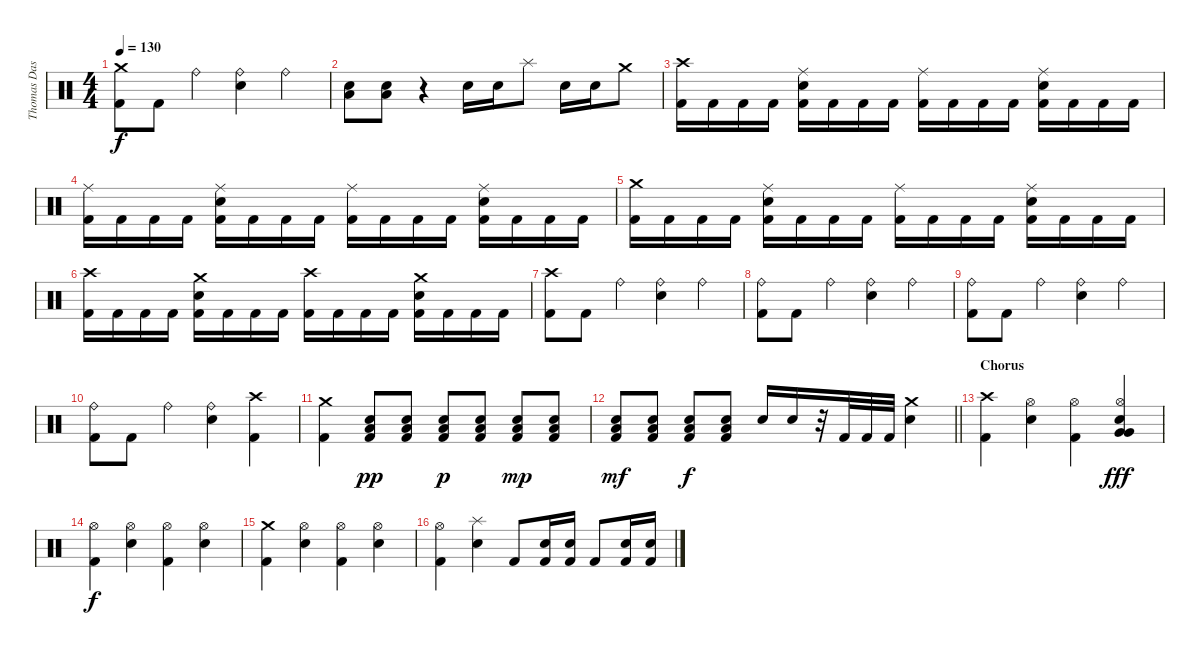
\track ("Thomas Das Neves (Drums)" "Thomas Das") {instrument percussion}
\staff {score}
\articulation defaults
\ts (4 4)
\tempo 130
\clef neutral
\ks c
("Crash medium (hit)" "Kick (hit) 2").8{dy f} "Kick (hit) 2".8 "Ride (bell)".4 ("Ride (bell)" "Snare (hit) 2").4 "Ride (bell)".4 |
("Low Floor Tom (hit)" "Snare (hit) 2").8 ("Low Floor Tom (hit)" "Snare (hit) 2").8 r.4 "Snare (hit) 2".16 "Snare (hit) 2".16 "Splash (hit)".8 "Snare (hit) 2".16 "Snare (hit) 2".16 "Crash medium (hit)".8 |
("Crash high (hit)" "Kick (hit) 2").16 "Kick (hit) 2".16 "Kick (hit) 2".16 "Kick (hit) 2".16 ("Ride (middle)" "Snare (hit) 2" "Kick (hit) 2").16 "Kick (hit) 2".16 "Kick (hit) 2".16 "Kick (hit) 2".16 ("Ride (middle)" "Kick (hit) 2").16 "Kick (hit) 2".16 "Kick (hit) 2".16 "Kick (hit) 2".16 ("Ride (middle)" "Snare (hit) 2" "Kick (hit) 2").16 "Kick (hit) 2".16 "Kick (hit) 2".16 "Kick (hit) 2".16 |
("Ride (middle)" "Kick (hit) 2").16 "Kick (hit) 2".16 "Kick (hit) 2".16 "Kick (hit) 2".16 ("Ride (middle)" "Snare (hit) 2" "Kick (hit) 2").16 "Kick (hit) 2".16 "Kick (hit) 2".16 "Kick (hit) 2".16 ("Ride (middle)" "Kick (hit) 2").16 "Kick (hit) 2".16 "Kick (hit) 2".16 "Kick (hit) 2".16 ("Ride (middle)" "Snare (hit) 2" "Kick (hit) 2").16 "Kick (hit) 2".16 "Kick (hit) 2".16 "Kick (hit) 2".16 |
("Crash medium (hit)" "Kick (hit) 2").16 "Kick (hit) 2".16 "Kick (hit) 2".16 "Kick (hit) 2".16 ("Ride (middle)" "Snare (hit) 2" "Kick (hit) 2").16 "Kick (hit) 2".16 "Kick (hit) 2".16 "Kick (hit) 2".16 ("Ride (middle)" "Kick (hit) 2").16 "Kick (hit) 2".16 "Kick (hit) 2".16 "Kick (hit) 2".16 ("Ride (middle)" "Snare (hit) 2" "Kick (hit) 2").16 "Kick (hit) 2".16 "Kick (hit) 2".16 "Kick (hit) 2".16 |
("Crash high (hit)" "Kick (hit) 2").16 "Kick (hit) 2".16 "Kick (hit) 2".16 "Kick (hit) 2".16 ("Crash medium (hit)" "Snare (hit) 2" "Kick (hit) 2").16 "Kick (hit) 2".16 "Kick (hit) 2".16 "Kick (hit) 2".16 ("Crash high (hit)" "Kick (hit) 2").16 "Kick (hit) 2".16 "Kick (hit) 2".16 "Kick (hit) 2".16 ("Crash medium (hit)" "Snare (hit) 2" "Kick (hit) 2").16 "Kick (hit) 2".16 "Kick (hit) 2".16 "Kick (hit) 2".16 |
("Crash high (hit)" "Kick (hit) 2").8 "Kick (hit) 2".8 "Ride (bell)".4 ("Ride (bell)" "Snare (hit) 2").4 "Ride (bell)".4 |
("Ride (bell)" "Kick (hit) 2").8 "Kick (hit) 2".8 "Ride (bell)".4 ("Ride (bell)" "Snare (hit) 2").4 "Ride (bell)".4 |
("Ride (bell)" "Kick (hit) 2").8 "Kick (hit) 2".8 "Ride (bell)".4 ("Ride (bell)" "Snare (hit) 2").4 "Ride (bell)".4 |
("Ride (bell)" "Kick (hit) 2").8 "Kick (hit) 2".8 "Ride (bell)".4 ("Ride (bell)" "Snare (hit) 2").4 ("Crash high (hit)" "Kick (hit) 2").4 |
("Crash medium (hit)" "Kick (hit) 2").4 ("Low Floor Tom (hit)" "Snare (hit) 2" "Kick (hit) 2").8{dy pp} ("Low Floor Tom (hit)" "Snare (hit) 2" "Kick (hit) 2").8 ("Low Floor Tom (hit)" "Snare (hit) 2" "Kick (hit) 2").8{dy p} ("Low Floor Tom (hit)" "Snare (hit) 2" "Kick (hit) 2").8 ("Low Floor Tom (hit)" "Snare (hit) 2" "Kick (hit) 2").8{dy mp} ("Low Floor Tom (hit)" "Snare (hit) 2" "Kick (hit) 2").8 |
\barLineRight lightlight
("Low Floor Tom (hit)" "Snare (hit) 2" "Kick (hit) 2").8{dy mf} ("Low Floor Tom (hit)" "Snare (hit) 2" "Kick (hit) 2").8 ("Low Floor Tom (hit)" "Snare (hit) 2" "Kick (hit) 2").8{dy f} ("Low Floor Tom (hit)" "Snare (hit) 2" "Kick (hit) 2").8 "Snare (hit) 2".16 "Snare (hit) 2".16 r.32 "Kick (hit) 2".32 "Kick (hit) 2".32 "Kick (hit) 2".32 ("Crash medium (hit)" "Snare (hit) 2").4 |
\section ("" "Chorus")
("Crash high (hit)" "Kick (hit) 2").4 ("Hi-Hat (open)" "Snare (hit) 2").4 ("Hi-Hat (open)" "Kick (hit) 2").4 ("Hi-Hat (open)" "Very Low Tom (hit)" "Very Low Tom (hit)" "Snare (hit) 2").4{dy fff} |
("Hi-Hat (open)" "Kick (hit) 2").4{dy f} ("Hi-Hat (open)" "Snare (hit) 2").4 ("Hi-Hat (open)" "Kick (hit) 2").4 ("Hi-Hat (open)" "Snare (hit) 2").4 |
("Crash medium (hit)" "Kick (hit) 2").4 ("Hi-Hat (open)" "Snare (hit) 2").4 ("Hi-Hat (open)" "Kick (hit) 2").4 ("Hi-Hat (open)" "Snare (hit) 2").4 |
("Hi-Hat (open)" "Kick (hit) 2").4 ("Splash (hit)" "Snare (hit) 2").4 "Kick (hit) 2".8 ("Snare (hit) 2" "Kick (hit) 2").16 ("Snare (hit) 2" "Kick (hit) 2").16 "Kick (hit) 2".8 ("Snare (hit) 2" "Kick (hit) 2").16 ("Snare (hit) 2" "Kick (hit) 2").16
